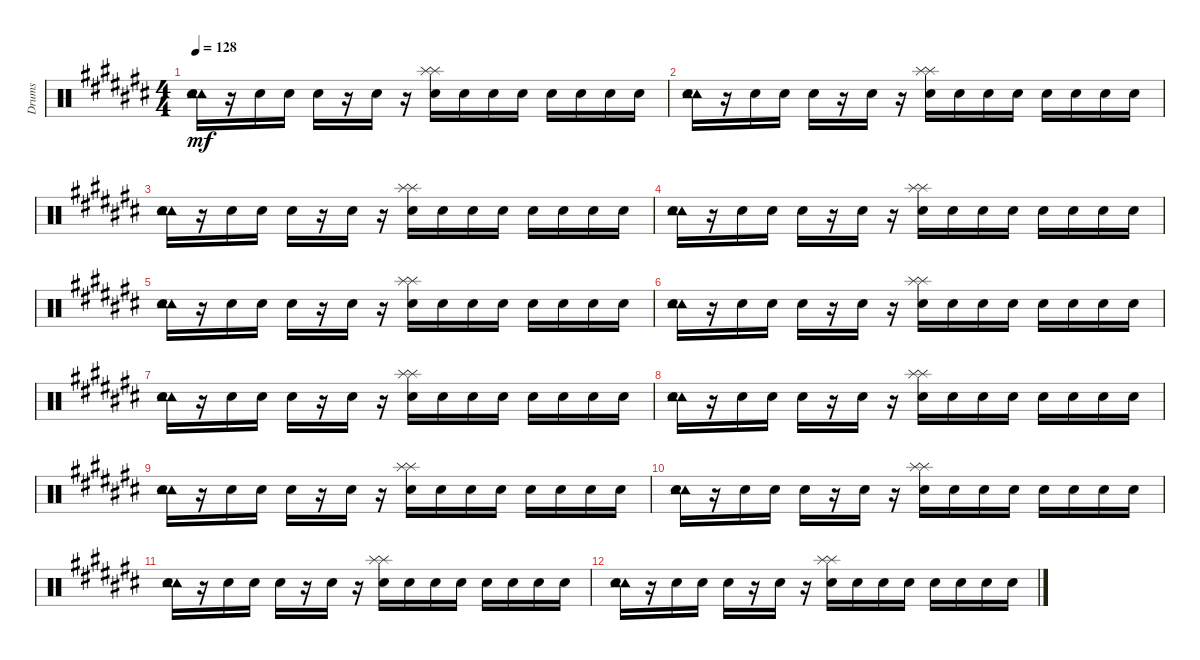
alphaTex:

\track ("Drums" "Drums") {instrument percussion}
\staff {score}
\articulation defaults
\ts (4 4)
\tempo 128
\clef neutral
\ks c#
("Tambourine (hit)" "Tambourine (hit)" "Electric Snare (hit)").16{dy mf} r.16 "Electric Snare (hit)".16 "Electric Snare (hit)".16 "Electric Snare (hit)".16 r.16 "Electric Snare (hit)".16 r.16 ("Splash (hit)" "Splash (hit)" "Electric Snare (hit)").16 "Electric Snare (hit)".16 "Electric Snare (hit)".16 "Electric Snare (hit)".16 "Electric Snare (hit)".16 "Electric Snare (hit)".16 "Electric Snare (hit)".16 "Electric Snare (hit)".16 |
("Tambourine (hit)" "Tambourine (hit)" "Electric Snare (hit)").16 r.16 "Electric Snare (hit)".16 "Electric Snare (hit)".16 "Electric Snare (hit)".16 r.16 "Electric Snare (hit)".16 r.16 ("Splash (hit)" "Splash (hit)" "Electric Snare (hit)").16 "Electric Snare (hit)".16 "Electric Snare (hit)".16 "Electric Snare (hit)".16 "Electric Snare (hit)".16 "Electric Snare (hit)".16 "Electric Snare (hit)".16 "Electric Snare (hit)".16 |
("Tambourine (hit)" "Tambourine (hit)" "Electric Snare (hit)").16 r.16 "Electric Snare (hit)".16 "Electric Snare (hit)".16 "Electric Snare (hit)".16 r.16 "Electric Snare (hit)".16 r.16 ("Splash (hit)" "Splash (hit)" "Electric Snare (hit)").16 "Electric Snare (hit)".16 "Electric Snare (hit)".16 "Electric Snare (hit)".16 "Electric Snare (hit)".16 "Electric Snare (hit)".16 "Electric Snare (hit)".16 "Electric Snare (hit)".16 |
("Tambourine (hit)" "Tambourine (hit)" "Electric Snare (hit)").16 r.16 "Electric Snare (hit)".16 "Electric Snare (hit)".16 "Electric Snare (hit)".16 r.16 "Electric Snare (hit)".16 r.16 ("Splash (hit)" "Splash (hit)" "Electric Snare (hit)").16 "Electric Snare (hit)".16 "Electric Snare (hit)".16 "Electric Snare (hit)".16 "Electric Snare (hit)".16 "Electric Snare (hit)".16 "Electric Snare (hit)".16 "Electric Snare (hit)".16 |
("Tambourine (hit)" "Tambourine (hit)" "Electric Snare (hit)").16 r.16 "Electric Snare (hit)".16 "Electric Snare (hit)".16 "Electric Snare (hit)".16 r.16 "Electric Snare (hit)".16 r.16 ("Splash (hit)" "Splash (hit)" "Electric Snare (hit)").16 "Electric Snare (hit)".16 "Electric Snare (hit)".16 "Electric Snare (hit)".16 "Electric Snare (hit)".16 "Electric Snare (hit)".16 "Electric Snare (hit)".16 "Electric Snare (hit)".16 |
("Tambourine (hit)" "Tambourine (hit)" "Electric Snare (hit)").16 r.16 "Electric Snare (hit)".16 "Electric Snare (hit)".16 "Electric Snare (hit)".16 r.16 "Electric Snare (hit)".16 r.16 ("Splash (hit)" "Splash (hit)" "Electric Snare (hit)").16 "Electric Snare (hit)".16 "Electric Snare (hit)".16 "Electric Snare (hit)".16 "Electric Snare (hit)".16 "Electric Snare (hit)".16 "Electric Snare (hit)".16 "Electric Snare (hit)".16 |
("Tambourine (hit)" "Tambourine (hit)" "Electric Snare (hit)").16 r.16 "Electric Snare (hit)".16 "Electric Snare (hit)".16 "Electric Snare (hit)".16 r.16 "Electric Snare (hit)".16 r.16 ("Splash (hit)" "Splash (hit)" "Electric Snare (hit)").16 "Electric Snare (hit)".16 "Electric Snare (hit)".16 "Electric Snare (hit)".16 "Electric Snare (hit)".16 "Electric Snare (hit)".16 "Electric Snare (hit)".16 "Electric Snare (hit)".16 |
("Tambourine (hit)" "Tambourine (hit)" "Electric Snare (hit)").16 r.16 "Electric Snare (hit)".16 "Electric Snare (hit)".16 "Electric Snare (hit)".16 r.16 "Electric Snare (hit)".16 r.16 ("Splash (hit)" "Splash (hit)" "Electric Snare (hit)").16 "Electric Snare (hit)".16 "Electric Snare (hit)".16 "Electric Snare (hit)".16 "Electric Snare (hit)".16 "Electric Snare (hit)".16 "Electric Snare (hit)".16 "Electric Snare (hit)".16 |
("Tambourine (hit)" "Tambourine (hit)" "Electric Snare (hit)").16 r.16 "Electric Snare (hit)".16 "Electric Snare (hit)".16 "Electric Snare (hit)".16 r.16 "Electric Snare (hit)".16 r.16 ("Splash (hit)" "Splash (hit)" "Electric Snare (hit)").16 "Electric Snare (hit)".16 "Electric Snare (hit)".16 "Electric Snare (hit)".16 "Electric Snare (hit)".16 "Electric Snare (hit)".16 "Electric Snare (hit)".16 "Electric Snare (hit)".16 |
("Tambourine (hit)" "Tambourine (hit)" "Electric Snare (hit)").16 r.16 "Electric Snare (hit)".16 "Electric Snare (hit)".16 "Electric Snare (hit)".16 r.16 "Electric Snare (hit)".16 r.16 ("Splash (hit)" "Splash (hit)" "Electric Snare (hit)").16 "Electric Snare (hit)".16 "Electric Snare (hit)".16 "Electric Snare (hit)".16 "Electric Snare (hit)".16 "Electric Snare (hit)".16 "Electric Snare (hit)".16 "Electric Snare (hit)".16 |
("Tambourine (hit)" "Tambourine (hit)" "Electric Snare (hit)").16 r.16 "Electric Snare (hit)".16 "Electric Snare (hit)".16 "Electric Snare (hit)".16 r.16 "Electric Snare (hit)".16 r.16 ("Splash (hit)" "Splash (hit)" "Electric Snare (hit)").16 "Electric Snare (hit)".16 "Electric Snare (hit)".16 "Electric Snare (hit)".16 "Electric Snare (hit)".16 "Electric Snare (hit)".16 "Electric Snare (hit)".16 "Electric Snare (hit)".16 |
("Tambourine (hit)" "Tambourine (hit)" "Electric Snare (hit)").16 r.16 "Electric Snare (hit)".16 "Electric Snare (hit)".16 "Electric Snare (hit)".16 r.16 "Electric Snare (hit)".16 r.16 ("Splash (hit)" "Splash (hit)" "Electric Snare (hit)").16 "Electric Snare (hit)".16 "Electric Snare (hit)".16 "Electric Snare (hit)".16 "Electric Snare (hit)".16 "Electric Snare (hit)".16 "Electric Snare (hit)".16 "Electric Snare (hit)".16
